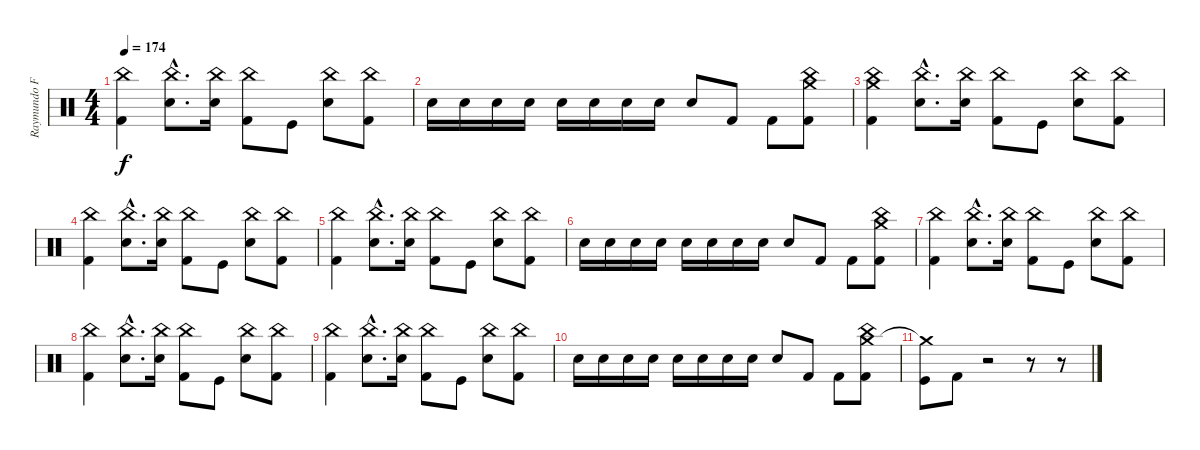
\track ("Raymundo Fajardo (Batería)" "Raymundo F") {instrument percussion}
\staff {score}
\articulation defaults
\ts (4 4)
\tempo 174
\clef neutral
\ks c
("Kick (hit) 2" "China (hit)").4{dy f} ("Snare (hit) 2"{hac} "China (hit)"{hac}).8{d} ("Snare (hit) 2" "China (hit)").16 ("Kick (hit) 2" "China (hit)").8 "Kick (hit)".8 ("China (hit)" "Snare (hit) 2").8 ("Kick (hit) 2" "China (hit)").8 |
"Snare (hit) 2".16 "Snare (hit) 2".16 "Snare (hit) 2".16 "Snare (hit) 2".16 "Snare (hit) 2".16 "Snare (hit) 2".16 "Snare (hit) 2".16 "Snare (hit) 2".16 "Snare (hit) 2".8 "Kick (hit) 2".8 "Kick (hit) 2".8 ("Crash medium (hit)" "Kick (hit) 2" "China (hit)").8 |
("Crash medium (hit)" "Kick (hit) 2" "China (hit)").4 ("Snare (hit) 2"{hac} "China (hit)"{hac}).8{d} ("Snare (hit) 2" "China (hit)").16 ("Kick (hit) 2" "China (hit)").8 "Kick (hit)".8 ("China (hit)" "Snare (hit) 2").8 ("Kick (hit) 2" "China (hit)").8 |
("Kick (hit) 2" "China (hit)").4 ("Snare (hit) 2"{hac} "China (hit)"{hac}).8{d} ("Snare (hit) 2" "China (hit)").16 ("Kick (hit) 2" "China (hit)").8 "Kick (hit)".8 ("China (hit)" "Snare (hit) 2").8 ("Kick (hit) 2" "China (hit)").8 |
("Kick (hit) 2" "China (hit)").4 ("Snare (hit) 2"{hac} "China (hit)"{hac}).8{d} ("Snare (hit) 2" "China (hit)").16 ("Kick (hit) 2" "China (hit)").8 "Kick (hit)".8 ("China (hit)" "Snare (hit) 2").8 ("Kick (hit) 2" "China (hit)").8 |
"Snare (hit) 2".16 "Snare (hit) 2".16 "Snare (hit) 2".16 "Snare (hit) 2".16 "Snare (hit) 2".16 "Snare (hit) 2".16 "Snare (hit) 2".16 "Snare (hit) 2".16 "Snare (hit) 2".8 "Kick (hit) 2".8 "Kick (hit) 2".8 ("Crash medium (hit)" "Kick (hit) 2" "China (hit)").8 |
("Kick (hit) 2" "China (hit)").4 ("Snare (hit) 2"{hac} "China (hit)"{hac}).8{d} ("Snare (hit) 2" "China (hit)").16 ("Kick (hit) 2" "China (hit)").8 "Kick (hit)".8 ("China (hit)" "Snare (hit) 2").8 ("Kick (hit) 2" "China (hit)").8 |
("Kick (hit) 2" "China (hit)").4 ("Snare (hit) 2"{hac} "China (hit)"{hac}).8{d} ("Snare (hit) 2" "China (hit)").16 ("Kick (hit) 2" "China (hit)").8 "Kick (hit)".8 ("China (hit)" "Snare (hit) 2").8 ("Kick (hit) 2" "China (hit)").8 |
("Kick (hit) 2" "China (hit)").4 ("Snare (hit) 2"{hac} "China (hit)"{hac}).8{d} ("Snare (hit) 2" "China (hit)").16 ("Kick (hit) 2" "China (hit)").8 "Kick (hit)".8 ("China (hit)" "Snare (hit) 2").8 ("Kick (hit) 2" "China (hit)").8 |
"Snare (hit) 2".16 "Snare (hit) 2".16 "Snare (hit) 2".16 "Snare (hit) 2".16 "Snare (hit) 2".16 "Snare (hit) 2".16 "Snare (hit) 2".16 "Snare (hit) 2".16 "Snare (hit) 2".8 "Kick (hit) 2".8 "Kick (hit) 2".8 ("Crash medium (hit)" "Kick (hit) 2" "China (hit)").8 |
("Crash medium (hit)"{t} "Kick (hit)").8 "Kick (hit) 2".8 r.2 r.8 r.8
